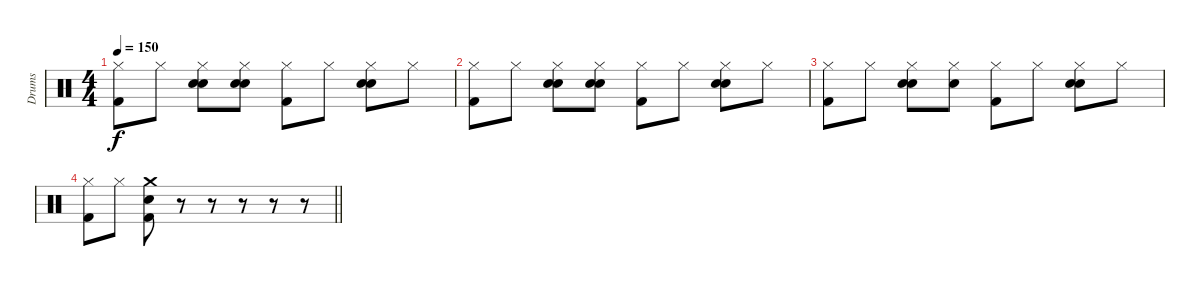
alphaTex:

\track ("Drums" "Drums") {instrument percussion}
\staff {score}
\articulation defaults
\ts (4 4)
\tempo 150
\clef neutral
\ks c
("Hi-Hat (closed)" "Kick (hit) 2").8{dy f} "Hi-Hat (closed)".8 ("Hi-Hat (closed)" "Hand Clap (hit)" "Snare (hit) 2").8 ("Hi-Hat (closed)" "Hand Clap (hit)" "Snare (hit) 2").8 ("Hi-Hat (closed)" "Kick (hit) 2").8 "Hi-Hat (closed)".8 ("Hi-Hat (closed)" "Hand Clap (hit)" "Snare (hit) 2").8 "Hi-Hat (closed)".8 |
("Hi-Hat (closed)" "Kick (hit) 2").8 "Hi-Hat (closed)".8 ("Hi-Hat (closed)" "Hand Clap (hit)" "Snare (hit) 2").8 ("Hi-Hat (closed)" "Hand Clap (hit)" "Snare (hit) 2").8 ("Hi-Hat (closed)" "Kick (hit) 2").8 "Hi-Hat (closed)".8 ("Hi-Hat (closed)" "Hand Clap (hit)" "Snare (hit) 2").8 "Hi-Hat (closed)".8 |
("Hi-Hat (closed)" "Kick (hit) 2").8 "Hi-Hat (closed)".8 ("Hi-Hat (closed)" "Hand Clap (hit)" "Snare (hit) 2").8 ("Hi-Hat (closed)" "Hand Clap (hit)").8 ("Hi-Hat (closed)" "Kick (hit) 2").8 "Hi-Hat (closed)".8 ("Hi-Hat (closed)" "Hand Clap (hit)" "Snare (hit) 2").8 "Hi-Hat (closed)".8 |
\barLineRight lightlight
("Hi-Hat (closed)" "Kick (hit) 2").8 "Hi-Hat (closed)".8 ("Crash medium (hit)" "Snare (hit) 2" "Kick (hit) 2").8 r.8 r.8 r.8 r.8 r.8
